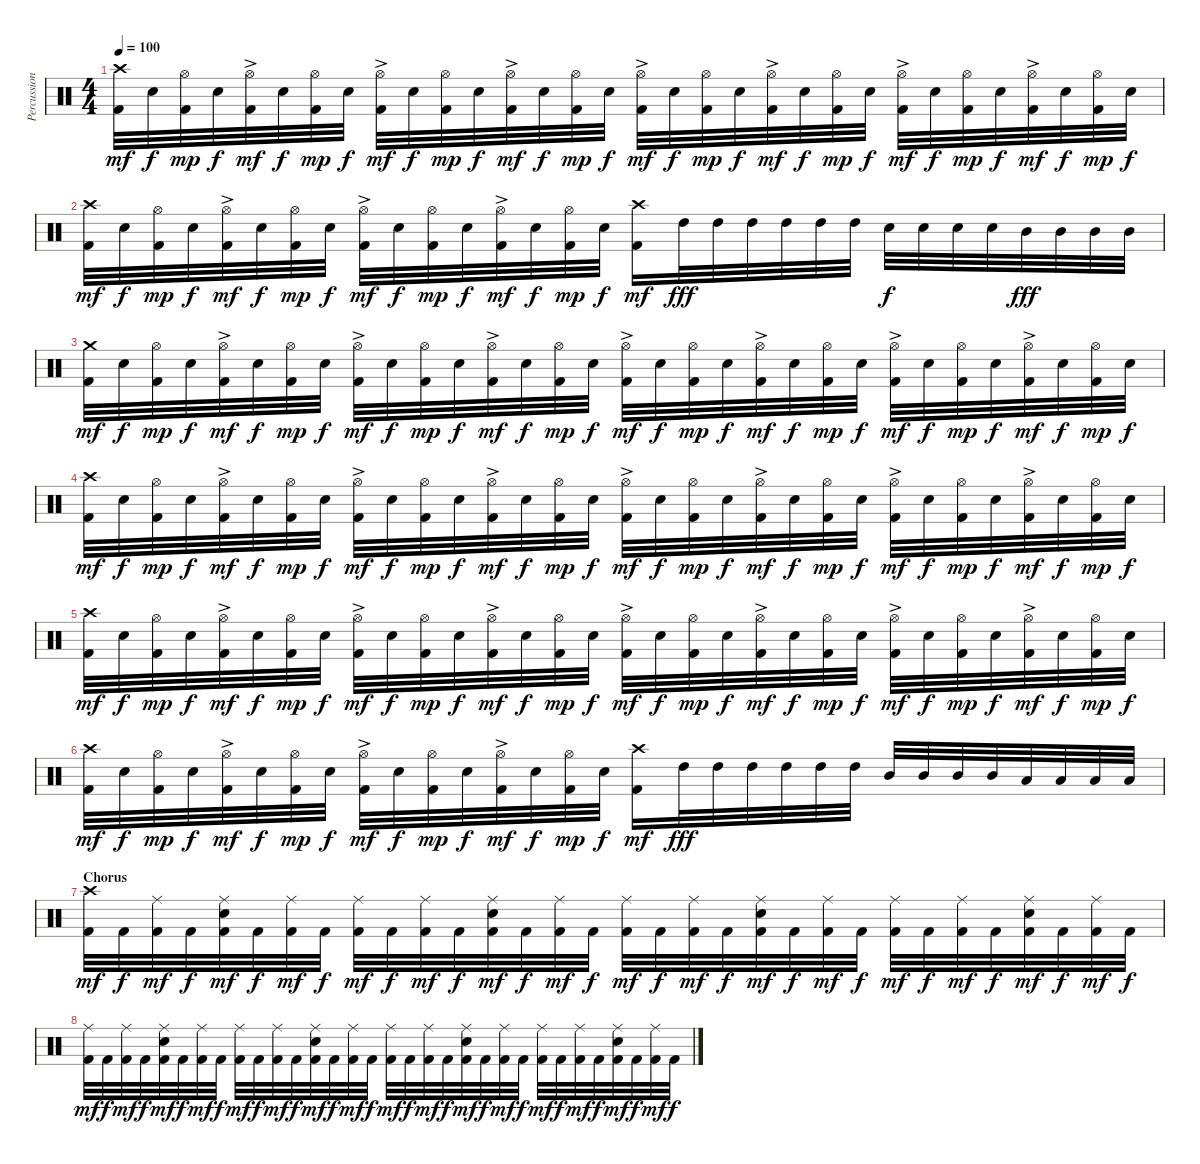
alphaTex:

\track ("Percussion" "Percussion") {instrument percussion}
\staff {score}
\articulation defaults
\ts (4 4)
\tempo 100
\clef neutral
\ks c
("Crash high (hit)" "Kick (hit) 2").32{dy mf} "Electric Snare (hit)".32{dy f} ("Hi-Hat (open)" "Kick (hit) 2").32{dy mp} "Electric Snare (hit)".32{dy f} ("Hi-Hat (open)"{ac} "Kick (hit) 2").32{dy mf} "Electric Snare (hit)".32{dy f} ("Hi-Hat (open)" "Kick (hit) 2").32{dy mp} "Electric Snare (hit)".32{dy f} ("Hi-Hat (open)"{ac} "Kick (hit) 2").32{dy mf} "Electric Snare (hit)".32{dy f} ("Hi-Hat (open)" "Kick (hit) 2").32{dy mp} "Electric Snare (hit)".32{dy f} ("Hi-Hat (open)"{ac} "Kick (hit) 2").32{dy mf} "Electric Snare (hit)".32{dy f} ("Hi-Hat (open)" "Kick (hit) 2").32{dy mp} "Electric Snare (hit)".32{dy f} ("Hi-Hat (open)"{ac} "Kick (hit) 2").32{dy mf} "Electric Snare (hit)".32{dy f} ("Hi-Hat (open)" "Kick (hit) 2").32{dy mp} "Electric Snare (hit)".32{dy f} ("Hi-Hat (open)"{ac} "Kick (hit) 2").32{dy mf} "Electric Snare (hit)".32{dy f} ("Hi-Hat (open)" "Kick (hit) 2").32{dy mp} "Electric Snare (hit)".32{dy f} ("Hi-Hat (open)"{ac} "Kick (hit) 2").32{dy mf} "Electric Snare (hit)".32{dy f} ("Hi-Hat (open)" "Kick (hit) 2").32{dy mp} "Electric Snare (hit)".32{dy f} ("Hi-Hat (open)"{ac} "Kick (hit) 2").32{dy mf} "Electric Snare (hit)".32{dy f} ("Hi-Hat (open)" "Kick (hit) 2").32{dy mp} "Electric Snare (hit)".32{dy f} |
("Crash high (hit)" "Kick (hit) 2").32{dy mf} "Electric Snare (hit)".32{dy f} ("Hi-Hat (open)" "Kick (hit) 2").32{dy mp} "Electric Snare (hit)".32{dy f} ("Hi-Hat (open)"{ac} "Kick (hit) 2").32{dy mf} "Electric Snare (hit)".32{dy f} ("Hi-Hat (open)" "Kick (hit) 2").32{dy mp} "Electric Snare (hit)".32{dy f} ("Hi-Hat (open)"{ac} "Kick (hit) 2").32{dy mf} "Electric Snare (hit)".32{dy f} ("Hi-Hat (open)" "Kick (hit) 2").32{dy mp} "Electric Snare (hit)".32{dy f} ("Hi-Hat (open)"{ac} "Kick (hit) 2").32{dy mf} "Electric Snare (hit)".32{dy f} ("Hi-Hat (open)" "Kick (hit) 2").32{dy mp} "Electric Snare (hit)".32{dy f} ("Crash high (hit)" "Kick (hit) 2").16{dy mf} "High Tom (hit)".32{dy fff} "High Tom (hit)".32 "High Tom (hit)".32 "High Tom (hit)".32 "High Tom (hit)".32 "High Tom (hit)".32 "Electric Snare (hit)".32{dy f} "Electric Snare (hit)".32 "Electric Snare (hit)".32 "Electric Snare (hit)".32 "Mid Tom (hit)".32{dy fff} "Mid Tom (hit)".32 "Mid Tom (hit)".32 "Mid Tom (hit)".32 |
("Crash medium (hit)" "Kick (hit) 2").32{dy mf} "Electric Snare (hit)".32{dy f} ("Hi-Hat (open)" "Kick (hit) 2").32{dy mp} "Electric Snare (hit)".32{dy f} ("Hi-Hat (open)"{ac} "Kick (hit) 2").32{dy mf} "Electric Snare (hit)".32{dy f} ("Hi-Hat (open)" "Kick (hit) 2").32{dy mp} "Electric Snare (hit)".32{dy f} ("Hi-Hat (open)"{ac} "Kick (hit) 2").32{dy mf} "Electric Snare (hit)".32{dy f} ("Hi-Hat (open)" "Kick (hit) 2").32{dy mp} "Electric Snare (hit)".32{dy f} ("Hi-Hat (open)"{ac} "Kick (hit) 2").32{dy mf} "Electric Snare (hit)".32{dy f} ("Hi-Hat (open)" "Kick (hit) 2").32{dy mp} "Electric Snare (hit)".32{dy f} ("Hi-Hat (open)"{ac} "Kick (hit) 2").32{dy mf} "Electric Snare (hit)".32{dy f} ("Hi-Hat (open)" "Kick (hit) 2").32{dy mp} "Electric Snare (hit)".32{dy f} ("Hi-Hat (open)"{ac} "Kick (hit) 2").32{dy mf} "Electric Snare (hit)".32{dy f} ("Hi-Hat (open)" "Kick (hit) 2").32{dy mp} "Electric Snare (hit)".32{dy f} ("Hi-Hat (open)"{ac} "Kick (hit) 2").32{dy mf} "Electric Snare (hit)".32{dy f} ("Hi-Hat (open)" "Kick (hit) 2").32{dy mp} "Electric Snare (hit)".32{dy f} ("Hi-Hat (open)"{ac} "Kick (hit) 2").32{dy mf} "Electric Snare (hit)".32{dy f} ("Hi-Hat (open)" "Kick (hit) 2").32{dy mp} "Electric Snare (hit)".32{dy f} |
("Crash high (hit)" "Kick (hit) 2").32{dy mf} "Electric Snare (hit)".32{dy f} ("Hi-Hat (open)" "Kick (hit) 2").32{dy mp} "Electric Snare (hit)".32{dy f} ("Hi-Hat (open)"{ac} "Kick (hit) 2").32{dy mf} "Electric Snare (hit)".32{dy f} ("Hi-Hat (open)" "Kick (hit) 2").32{dy mp} "Electric Snare (hit)".32{dy f} ("Hi-Hat (open)"{ac} "Kick (hit) 2").32{dy mf} "Electric Snare (hit)".32{dy f} ("Hi-Hat (open)" "Kick (hit) 2").32{dy mp} "Electric Snare (hit)".32{dy f} ("Hi-Hat (open)"{ac} "Kick (hit) 2").32{dy mf} "Electric Snare (hit)".32{dy f} ("Hi-Hat (open)" "Kick (hit) 2").32{dy mp} "Electric Snare (hit)".32{dy f} ("Hi-Hat (open)"{ac} "Kick (hit) 2").32{dy mf} "Electric Snare (hit)".32{dy f} ("Hi-Hat (open)" "Kick (hit) 2").32{dy mp} "Electric Snare (hit)".32{dy f} ("Hi-Hat (open)"{ac} "Kick (hit) 2").32{dy mf} "Electric Snare (hit)".32{dy f} ("Hi-Hat (open)" "Kick (hit) 2").32{dy mp} "Electric Snare (hit)".32{dy f} ("Hi-Hat (open)"{ac} "Kick (hit) 2").32{dy mf} "Electric Snare (hit)".32{dy f} ("Hi-Hat (open)" "Kick (hit) 2").32{dy mp} "Electric Snare (hit)".32{dy f} ("Hi-Hat (open)"{ac} "Kick (hit) 2").32{dy mf} "Electric Snare (hit)".32{dy f} ("Hi-Hat (open)" "Kick (hit) 2").32{dy mp} "Electric Snare (hit)".32{dy f} |
("Crash high (hit)" "Kick (hit) 2").32{dy mf} "Electric Snare (hit)".32{dy f} ("Hi-Hat (open)" "Kick (hit) 2").32{dy mp} "Electric Snare (hit)".32{dy f} ("Hi-Hat (open)"{ac} "Kick (hit) 2").32{dy mf} "Electric Snare (hit)".32{dy f} ("Hi-Hat (open)" "Kick (hit) 2").32{dy mp} "Electric Snare (hit)".32{dy f} ("Hi-Hat (open)"{ac} "Kick (hit) 2").32{dy mf} "Electric Snare (hit)".32{dy f} ("Hi-Hat (open)" "Kick (hit) 2").32{dy mp} "Electric Snare (hit)".32{dy f} ("Hi-Hat (open)"{ac} "Kick (hit) 2").32{dy mf} "Electric Snare (hit)".32{dy f} ("Hi-Hat (open)" "Kick (hit) 2").32{dy mp} "Electric Snare (hit)".32{dy f} ("Hi-Hat (open)"{ac} "Kick (hit) 2").32{dy mf} "Electric Snare (hit)".32{dy f} ("Hi-Hat (open)" "Kick (hit) 2").32{dy mp} "Electric Snare (hit)".32{dy f} ("Hi-Hat (open)"{ac} "Kick (hit) 2").32{dy mf} "Electric Snare (hit)".32{dy f} ("Hi-Hat (open)" "Kick (hit) 2").32{dy mp} "Electric Snare (hit)".32{dy f} ("Hi-Hat (open)"{ac} "Kick (hit) 2").32{dy mf} "Electric Snare (hit)".32{dy f} ("Hi-Hat (open)" "Kick (hit) 2").32{dy mp} "Electric Snare (hit)".32{dy f} ("Hi-Hat (open)"{ac} "Kick (hit) 2").32{dy mf} "Electric Snare (hit)".32{dy f} ("Hi-Hat (open)" "Kick (hit) 2").32{dy mp} "Electric Snare (hit)".32{dy f} |
("Crash high (hit)" "Kick (hit) 2").32{dy mf} "Electric Snare (hit)".32{dy f} ("Hi-Hat (open)" "Kick (hit) 2").32{dy mp} "Electric Snare (hit)".32{dy f} ("Hi-Hat (open)"{ac} "Kick (hit) 2").32{dy mf} "Electric Snare (hit)".32{dy f} ("Hi-Hat (open)" "Kick (hit) 2").32{dy mp} "Electric Snare (hit)".32{dy f} ("Hi-Hat (open)"{ac} "Kick (hit) 2").32{dy mf} "Electric Snare (hit)".32{dy f} ("Hi-Hat (open)" "Kick (hit) 2").32{dy mp} "Electric Snare (hit)".32{dy f} ("Hi-Hat (open)"{ac} "Kick (hit) 2").32{dy mf} "Electric Snare (hit)".32{dy f} ("Hi-Hat (open)" "Kick (hit) 2").32{dy mp} "Electric Snare (hit)".32{dy f} ("Crash high (hit)" "Kick (hit) 2").16{dy mf} "High Tom (hit)".32{dy fff} "High Tom (hit)".32 "High Tom (hit)".32 "High Tom (hit)".32 "High Tom (hit)".32 "High Tom (hit)".32 "Mid Tom (hit)".32 "Mid Tom (hit)".32 "Mid Tom (hit)".32 "Mid Tom (hit)".32 "Low Tom (hit)".32 "Low Tom (hit)".32 "Low Tom (hit)".32 "Low Tom (hit)".32 |
\section ("" "Chorus")
("Crash high (hit)" "Kick (hit) 2").32{dy mf} "Kick (hit) 2".32{dy f} ("Ride (middle)" "Kick (hit) 2").32{dy mf} "Kick (hit) 2".32{dy f} ("Ride (middle)" "Electric Snare (hit)" "Kick (hit) 2").32{dy mf} "Kick (hit) 2".32{dy f} ("Ride (middle)" "Kick (hit) 2").32{dy mf} "Kick (hit) 2".32{dy f} ("Ride (middle)" "Kick (hit) 2").32{dy mf} "Kick (hit) 2".32{dy f} ("Ride (middle)" "Kick (hit) 2").32{dy mf} "Kick (hit) 2".32{dy f} ("Ride (middle)" "Electric Snare (hit)" "Kick (hit) 2").32{dy mf} "Kick (hit) 2".32{dy f} ("Ride (middle)" "Kick (hit) 2").32{dy mf} "Kick (hit) 2".32{dy f} ("Ride (middle)" "Kick (hit) 2").32{dy mf} "Kick (hit) 2".32{dy f} ("Ride (middle)" "Kick (hit) 2").32{dy mf} "Kick (hit) 2".32{dy f} ("Ride (middle)" "Electric Snare (hit)" "Kick (hit) 2").32{dy mf} "Kick (hit) 2".32{dy f} ("Ride (middle)" "Kick (hit) 2").32{dy mf} "Kick (hit) 2".32{dy f} ("Ride (middle)" "Kick (hit) 2").32{dy mf} "Kick (hit) 2".32{dy f} ("Ride (middle)" "Kick (hit) 2").32{dy mf} "Kick (hit) 2".32{dy f} ("Ride (middle)" "Electric Snare (hit)" "Kick (hit) 2").32{dy mf} "Kick (hit) 2".32{dy f} ("Ride (middle)" "Kick (hit) 2").32{dy mf} "Kick (hit) 2".32{dy f} |
("Ride (middle)" "Kick (hit) 2").32{dy mf} "Kick (hit) 2".32{dy f} ("Ride (middle)" "Kick (hit) 2").32{dy mf} "Kick (hit) 2".32{dy f} ("Ride (middle)" "Electric Snare (hit)" "Kick (hit) 2").32{dy mf} "Kick (hit) 2".32{dy f} ("Ride (middle)" "Kick (hit) 2").32{dy mf} "Kick (hit) 2".32{dy f} ("Ride (middle)" "Kick (hit) 2").32{dy mf} "Kick (hit) 2".32{dy f} ("Ride (middle)" "Kick (hit) 2").32{dy mf} "Kick (hit) 2".32{dy f} ("Ride (middle)" "Electric Snare (hit)" "Kick (hit) 2").32{dy mf} "Kick (hit) 2".32{dy f} ("Ride (middle)" "Kick (hit) 2").32{dy mf} "Kick (hit) 2".32{dy f} ("Ride (middle)" "Kick (hit) 2").32{dy mf} "Kick (hit) 2".32{dy f} ("Ride (middle)" "Kick (hit) 2").32{dy mf} "Kick (hit) 2".32{dy f} ("Ride (middle)" "Electric Snare (hit)" "Kick (hit) 2").32{dy mf} "Kick (hit) 2".32{dy f} ("Ride (middle)" "Kick (hit) 2").32{dy mf} "Kick (hit) 2".32{dy f} ("Ride (middle)" "Kick (hit) 2").32{dy mf} "Kick (hit) 2".32{dy f} ("Ride (middle)" "Kick (hit) 2").32{dy mf} "Kick (hit) 2".32{dy f} ("Ride (middle)" "Electric Snare (hit)" "Kick (hit) 2").32{dy mf} "Kick (hit) 2".32{dy f} ("Ride (middle)" "Kick (hit) 2").32{dy mf} "Kick (hit) 2".32{dy f}
